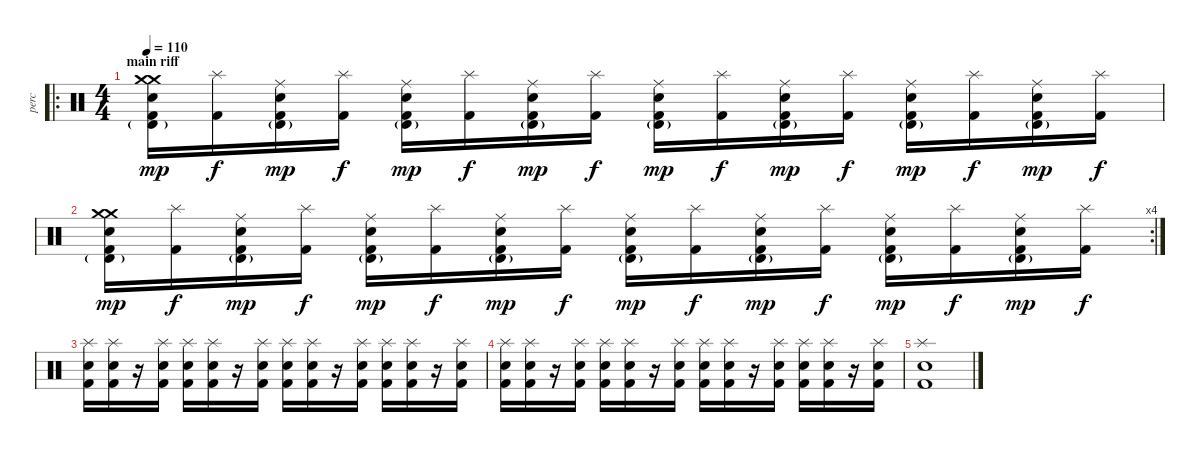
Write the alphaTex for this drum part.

\track ("perc" "perc") {instrument percussion}
\staff {score}
\articulation defaults
\ro
\ts (4 4)
\section ("" "main riff ")
\tempo 110
\clef neutral
\ks c
("Crash medium (hit)" "Timbale high (hit)"{g} "Crash medium (hit)" "Kick (hit) 2" "Snare (hit) 2").16{dy mp} ("Splash (hit)" "Kick (hit) 2").16{dy f} ("Timbale high (hit)"{g} "Ride (middle)" "Kick (hit) 2" "Snare (hit) 2").16{dy mp} ("Splash (hit)" "Kick (hit) 2").16{dy f} ("Timbale high (hit)"{g} "Ride (middle)" "Kick (hit) 2" "Snare (hit) 2").16{dy mp} ("Splash (hit)" "Kick (hit) 2").16{dy f} ("Timbale high (hit)"{g} "Ride (middle)" "Kick (hit) 2" "Snare (hit) 2").16{dy mp} ("Splash (hit)" "Kick (hit) 2").16{dy f} ("Timbale high (hit)"{g} "Ride (middle)" "Kick (hit) 2" "Snare (hit) 2").16{dy mp} ("Splash (hit)" "Kick (hit) 2").16{dy f} ("Timbale high (hit)"{g} "Ride (middle)" "Kick (hit) 2" "Snare (hit) 2").16{dy mp} ("Splash (hit)" "Kick (hit) 2").16{dy f} ("Timbale high (hit)"{g} "Ride (middle)" "Kick (hit) 2" "Snare (hit) 2").16{dy mp} ("Splash (hit)" "Kick (hit) 2").16{dy f} ("Timbale high (hit)"{g} "Ride (middle)" "Kick (hit) 2" "Snare (hit) 2").16{dy mp} ("Splash (hit)" "Kick (hit) 2").16{dy f} |
\rc 4
("Crash medium (hit)" "Timbale high (hit)"{g} "Crash medium (hit)" "Kick (hit) 2" "Snare (hit) 2").16{dy mp} ("Splash (hit)" "Kick (hit) 2").16{dy f} ("Timbale high (hit)"{g} "Ride (middle)" "Kick (hit) 2" "Snare (hit) 2").16{dy mp} ("Splash (hit)" "Kick (hit) 2").16{dy f} ("Timbale high (hit)"{g} "Ride (middle)" "Kick (hit) 2" "Snare (hit) 2").16{dy mp} ("Splash (hit)" "Kick (hit) 2").16{dy f} ("Timbale high (hit)"{g} "Ride (middle)" "Kick (hit) 2" "Snare (hit) 2").16{dy mp} ("Splash (hit)" "Kick (hit) 2").16{dy f} ("Timbale high (hit)"{g} "Ride (middle)" "Kick (hit) 2" "Snare (hit) 2").16{dy mp} ("Splash (hit)" "Kick (hit) 2").16{dy f} ("Timbale high (hit)"{g} "Ride (middle)" "Kick (hit) 2" "Snare (hit) 2").16{dy mp} ("Splash (hit)" "Kick (hit) 2").16{dy f} ("Timbale high (hit)"{g} "Ride (middle)" "Kick (hit) 2" "Snare (hit) 2").16{dy mp} ("Splash (hit)" "Kick (hit) 2").16{dy f} ("Timbale high (hit)"{g} "Ride (middle)" "Kick (hit) 2" "Snare (hit) 2").16{dy mp} ("Splash (hit)" "Kick (hit) 2").16{dy f} |
("Splash (hit)" "Snare (hit) 2" "Kick (hit) 2").16 ("Splash (hit)" "Snare (hit) 2" "Kick (hit) 2").16 r.16 ("Splash (hit)" "Snare (hit) 2" "Kick (hit) 2").16 ("Splash (hit)" "Snare (hit) 2" "Kick (hit) 2").16 ("Splash (hit)" "Snare (hit) 2" "Kick (hit) 2").16 r.16 ("Splash (hit)" "Snare (hit) 2" "Kick (hit) 2").16 ("Splash (hit)" "Snare (hit) 2" "Kick (hit) 2").16 ("Splash (hit)" "Snare (hit) 2" "Kick (hit) 2").16 r.16 ("Splash (hit)" "Snare (hit) 2" "Kick (hit) 2").16 ("Splash (hit)" "Snare (hit) 2" "Kick (hit) 2").16 ("Splash (hit)" "Snare (hit) 2" "Kick (hit) 2").16 r.16 ("Splash (hit)" "Snare (hit) 2" "Kick (hit) 2").16 |
("Splash (hit)" "Snare (hit) 2" "Kick (hit) 2").16 ("Splash (hit)" "Snare (hit) 2" "Kick (hit) 2").16 r.16 ("Splash (hit)" "Snare (hit) 2" "Kick (hit) 2").16 ("Splash (hit)" "Snare (hit) 2" "Kick (hit) 2").16 ("Splash (hit)" "Snare (hit) 2" "Kick (hit) 2").16 r.16 ("Splash (hit)" "Snare (hit) 2" "Kick (hit) 2").16 ("Splash (hit)" "Snare (hit) 2" "Kick (hit) 2").16 ("Splash (hit)" "Snare (hit) 2" "Kick (hit) 2").16 r.16 ("Splash (hit)" "Snare (hit) 2" "Kick (hit) 2").16 ("Splash (hit)" "Snare (hit) 2" "Kick (hit) 2").16 ("Splash (hit)" "Snare (hit) 2" "Kick (hit) 2").16 r.16 ("Splash (hit)" "Snare (hit) 2" "Kick (hit) 2").16 |
("Splash (hit)" "Snare (hit) 2" "Kick (hit) 2").1
